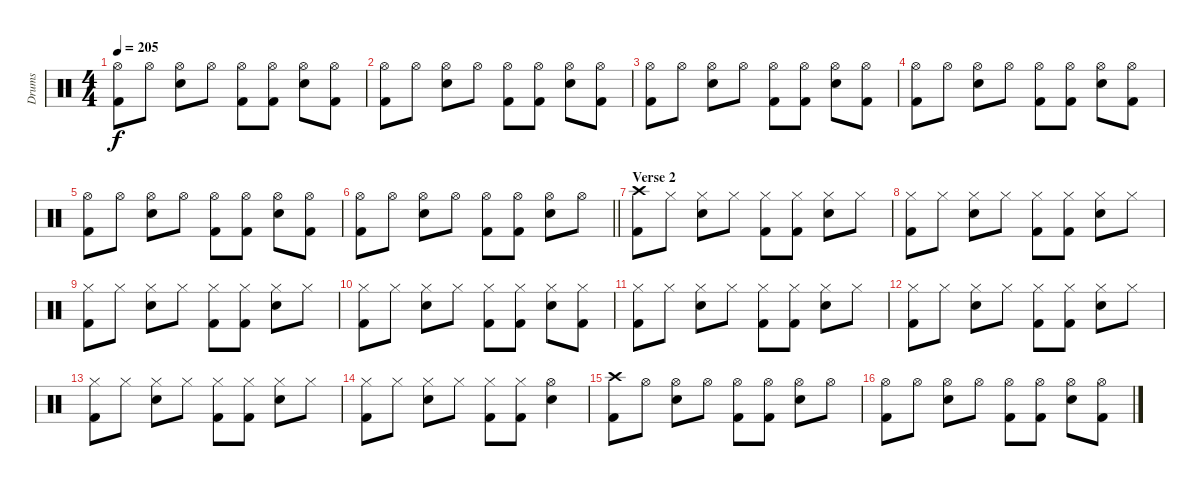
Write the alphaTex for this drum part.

\track ("Drums" "Drums") {instrument percussion}
\staff {score}
\articulation defaults
\ts (4 4)
\tempo 205
\clef neutral
\ks c
("Hi-Hat (open)" "Kick (hit) 2").8{dy f} "Hi-Hat (open)".8 ("Hi-Hat (open)" "Electric Snare (hit)").8 "Hi-Hat (open)".8 ("Hi-Hat (open)" "Kick (hit) 2").8 ("Hi-Hat (open)" "Kick (hit) 2").8 ("Hi-Hat (open)" "Electric Snare (hit)").8 ("Hi-Hat (open)" "Kick (hit) 2").8 |
("Hi-Hat (open)" "Kick (hit) 2").8 "Hi-Hat (open)".8 ("Hi-Hat (open)" "Electric Snare (hit)").8 "Hi-Hat (open)".8 ("Hi-Hat (open)" "Kick (hit) 2").8 ("Hi-Hat (open)" "Kick (hit) 2").8 ("Hi-Hat (open)" "Electric Snare (hit)").8 ("Hi-Hat (open)" "Kick (hit) 2").8 |
("Hi-Hat (open)" "Kick (hit) 2").8 "Hi-Hat (open)".8 ("Hi-Hat (open)" "Electric Snare (hit)").8 "Hi-Hat (open)".8 ("Hi-Hat (open)" "Kick (hit) 2").8 ("Hi-Hat (open)" "Kick (hit) 2").8 ("Hi-Hat (open)" "Electric Snare (hit)").8 ("Hi-Hat (open)" "Kick (hit) 2").8 |
("Hi-Hat (open)" "Kick (hit) 2").8 "Hi-Hat (open)".8 ("Hi-Hat (open)" "Electric Snare (hit)").8 "Hi-Hat (open)".8 ("Hi-Hat (open)" "Kick (hit) 2").8 ("Hi-Hat (open)" "Kick (hit) 2").8 ("Hi-Hat (open)" "Electric Snare (hit)").8 ("Hi-Hat (open)" "Kick (hit) 2").8 |
("Hi-Hat (open)" "Kick (hit) 2").8 "Hi-Hat (open)".8 ("Hi-Hat (open)" "Electric Snare (hit)").8 "Hi-Hat (open)".8 ("Hi-Hat (open)" "Kick (hit) 2").8 ("Hi-Hat (open)" "Kick (hit) 2").8 ("Hi-Hat (open)" "Electric Snare (hit)").8 ("Hi-Hat (open)" "Kick (hit) 2").8 |
\barLineRight lightlight
("Hi-Hat (open)" "Kick (hit) 2").8 "Hi-Hat (open)".8 ("Hi-Hat (open)" "Electric Snare (hit)").8 "Hi-Hat (open)".8 ("Hi-Hat (open)" "Kick (hit) 2").8 ("Hi-Hat (open)" "Kick (hit) 2").8 ("Hi-Hat (open)" "Electric Snare (hit)").8 "Hi-Hat (open)".8 |
\section ("" "Verse 2")
("Crash high (hit)" "Kick (hit) 2").8 "Hi-Hat (closed)".8 ("Hi-Hat (closed)" "Electric Snare (hit)").8 "Hi-Hat (closed)".8 ("Hi-Hat (closed)" "Kick (hit) 2").8 ("Hi-Hat (closed)" "Kick (hit) 2").8 ("Hi-Hat (closed)" "Electric Snare (hit)").8 "Hi-Hat (closed)".8 |
("Hi-Hat (closed)" "Kick (hit) 2").8 "Hi-Hat (closed)".8 ("Hi-Hat (closed)" "Electric Snare (hit)").8 "Hi-Hat (closed)".8 ("Hi-Hat (closed)" "Kick (hit) 2").8 ("Hi-Hat (closed)" "Kick (hit) 2").8 ("Hi-Hat (closed)" "Electric Snare (hit)").8 "Hi-Hat (closed)".8 |
("Hi-Hat (closed)" "Kick (hit) 2").8 "Hi-Hat (closed)".8 ("Hi-Hat (closed)" "Electric Snare (hit)").8 "Hi-Hat (closed)".8 ("Hi-Hat (closed)" "Kick (hit) 2").8 ("Hi-Hat (closed)" "Kick (hit) 2").8 ("Hi-Hat (closed)" "Electric Snare (hit)").8 "Hi-Hat (closed)".8 |
("Hi-Hat (closed)" "Kick (hit) 2").8 "Hi-Hat (closed)".8 ("Hi-Hat (closed)" "Electric Snare (hit)").8 "Hi-Hat (closed)".8 ("Hi-Hat (closed)" "Kick (hit) 2").8 ("Hi-Hat (closed)" "Kick (hit) 2").8 ("Hi-Hat (closed)" "Electric Snare (hit)").8 ("Hi-Hat (closed)" "Kick (hit) 2").8 |
("Hi-Hat (closed)" "Kick (hit) 2").8 "Hi-Hat (closed)".8 ("Hi-Hat (closed)" "Electric Snare (hit)").8 "Hi-Hat (closed)".8 ("Hi-Hat (closed)" "Kick (hit) 2").8 ("Hi-Hat (closed)" "Kick (hit) 2").8 ("Hi-Hat (closed)" "Electric Snare (hit)").8 "Hi-Hat (closed)".8 |
("Hi-Hat (closed)" "Kick (hit) 2").8 "Hi-Hat (closed)".8 ("Hi-Hat (closed)" "Electric Snare (hit)").8 "Hi-Hat (closed)".8 ("Hi-Hat (closed)" "Kick (hit) 2").8 ("Hi-Hat (closed)" "Kick (hit) 2").8 ("Hi-Hat (closed)" "Electric Snare (hit)").8 "Hi-Hat (closed)".8 |
("Hi-Hat (closed)" "Kick (hit) 2").8 "Hi-Hat (closed)".8 ("Hi-Hat (closed)" "Electric Snare (hit)").8 "Hi-Hat (closed)".8 ("Hi-Hat (closed)" "Kick (hit) 2").8 ("Hi-Hat (closed)" "Kick (hit) 2").8 ("Hi-Hat (closed)" "Electric Snare (hit)").8 "Hi-Hat (closed)".8 |
("Hi-Hat (closed)" "Kick (hit) 2").8 "Hi-Hat (closed)".8 ("Hi-Hat (closed)" "Electric Snare (hit)").8 "Hi-Hat (closed)".8 ("Hi-Hat (closed)" "Kick (hit) 2").8 ("Hi-Hat (closed)" "Kick (hit) 2").8 ("Hi-Hat (open)" "Electric Snare (hit)").4 |
("Crash high (hit)" "Kick (hit) 2").8 "Hi-Hat (open)".8 ("Hi-Hat (open)" "Electric Snare (hit)").8 "Hi-Hat (open)".8 ("Hi-Hat (open)" "Kick (hit) 2").8 ("Hi-Hat (open)" "Kick (hit) 2").8 ("Hi-Hat (open)" "Electric Snare (hit)").8 "Hi-Hat (open)".8 |
("Hi-Hat (open)" "Kick (hit) 2").8 "Hi-Hat (open)".8 ("Hi-Hat (open)" "Electric Snare (hit)").8 "Hi-Hat (open)".8 ("Hi-Hat (open)" "Kick (hit) 2").8 ("Hi-Hat (open)" "Kick (hit) 2").8 ("Hi-Hat (open)" "Electric Snare (hit)").8 ("Hi-Hat (open)" "Kick (hit) 2").8
